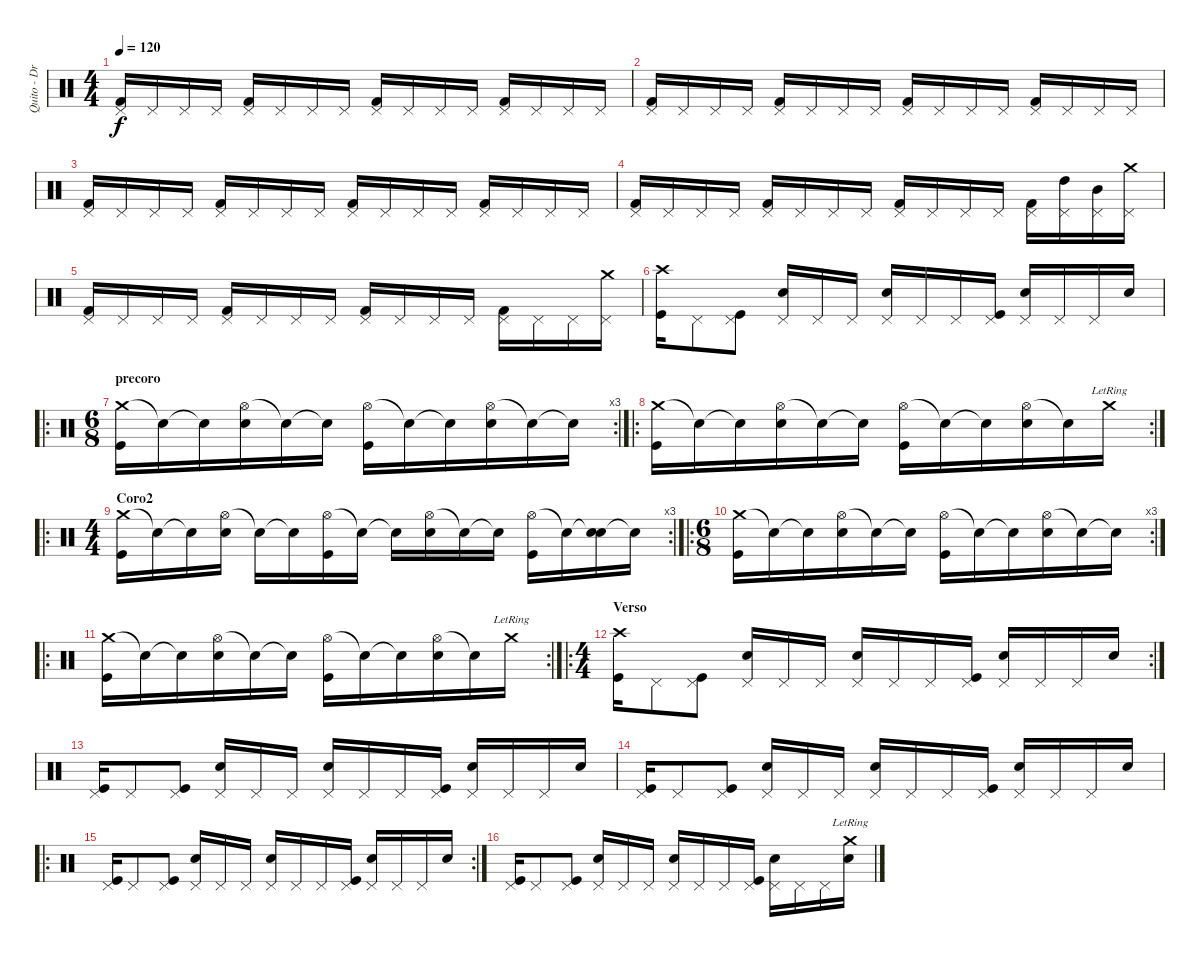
\track ("Quito - Drums" "Quito - Dr") {instrument percussion}
\staff {score}
\articulation defaults
\ts (4 4)
\tempo 120
\clef neutral
\ks c
("Pedal Hi-Hat (hit)" "Kick (hit) 2").16{dy f} "Pedal Hi-Hat (hit)".16 "Pedal Hi-Hat (hit)".16 "Pedal Hi-Hat (hit)".16 ("Pedal Hi-Hat (hit)" "Kick (hit) 2").16 "Pedal Hi-Hat (hit)".16 "Pedal Hi-Hat (hit)".16 "Pedal Hi-Hat (hit)".16 ("Pedal Hi-Hat (hit)" "Kick (hit) 2").16 "Pedal Hi-Hat (hit)".16 "Pedal Hi-Hat (hit)".16 "Pedal Hi-Hat (hit)".16 ("Pedal Hi-Hat (hit)" "Kick (hit) 2").16 "Pedal Hi-Hat (hit)".16 "Pedal Hi-Hat (hit)".16 "Pedal Hi-Hat (hit)".16 |
("Pedal Hi-Hat (hit)" "Kick (hit) 2").16 "Pedal Hi-Hat (hit)".16 "Pedal Hi-Hat (hit)".16 "Pedal Hi-Hat (hit)".16 ("Pedal Hi-Hat (hit)" "Kick (hit) 2").16 "Pedal Hi-Hat (hit)".16 "Pedal Hi-Hat (hit)".16 "Pedal Hi-Hat (hit)".16 ("Pedal Hi-Hat (hit)" "Kick (hit) 2").16 "Pedal Hi-Hat (hit)".16 "Pedal Hi-Hat (hit)".16 "Pedal Hi-Hat (hit)".16 ("Pedal Hi-Hat (hit)" "Kick (hit) 2").16 "Pedal Hi-Hat (hit)".16 "Pedal Hi-Hat (hit)".16 "Pedal Hi-Hat (hit)".16 |
("Pedal Hi-Hat (hit)" "Kick (hit) 2").16 "Pedal Hi-Hat (hit)".16 "Pedal Hi-Hat (hit)".16 "Pedal Hi-Hat (hit)".16 ("Pedal Hi-Hat (hit)" "Kick (hit) 2").16 "Pedal Hi-Hat (hit)".16 "Pedal Hi-Hat (hit)".16 "Pedal Hi-Hat (hit)".16 ("Pedal Hi-Hat (hit)" "Kick (hit) 2").16 "Pedal Hi-Hat (hit)".16 "Pedal Hi-Hat (hit)".16 "Pedal Hi-Hat (hit)".16 ("Pedal Hi-Hat (hit)" "Kick (hit) 2").16 "Pedal Hi-Hat (hit)".16 "Pedal Hi-Hat (hit)".16 "Pedal Hi-Hat (hit)".16 |
("Pedal Hi-Hat (hit)" "Kick (hit) 2").16 "Pedal Hi-Hat (hit)".16 "Pedal Hi-Hat (hit)".16 "Pedal Hi-Hat (hit)".16 ("Pedal Hi-Hat (hit)" "Kick (hit) 2").16 "Pedal Hi-Hat (hit)".16 "Pedal Hi-Hat (hit)".16 "Pedal Hi-Hat (hit)".16 ("Pedal Hi-Hat (hit)" "Kick (hit) 2").16 "Pedal Hi-Hat (hit)".16 "Pedal Hi-Hat (hit)".16 "Pedal Hi-Hat (hit)".16 ("Pedal Hi-Hat (hit)" "Kick (hit) 2").16 ("Pedal Hi-Hat (hit)" "High Tom (hit)").16 ("Pedal Hi-Hat (hit)" "Mid Tom (hit)").16 ("Pedal Hi-Hat (hit)" "Crash medium (hit)").16 |
("Pedal Hi-Hat (hit)" "Kick (hit) 2").16 "Pedal Hi-Hat (hit)".16 "Pedal Hi-Hat (hit)".16 "Pedal Hi-Hat (hit)".16 ("Pedal Hi-Hat (hit)" "Kick (hit) 2").16 "Pedal Hi-Hat (hit)".16 "Pedal Hi-Hat (hit)".16 "Pedal Hi-Hat (hit)".16 ("Pedal Hi-Hat (hit)" "Kick (hit) 2").16 "Pedal Hi-Hat (hit)".16 "Pedal Hi-Hat (hit)".16 "Pedal Hi-Hat (hit)".16 ("Pedal Hi-Hat (hit)" "Kick (hit) 2").16 "Pedal Hi-Hat (hit)".16 "Pedal Hi-Hat (hit)".16 ("Pedal Hi-Hat (hit)" "Crash medium (hit)").16 |
("Kick (hit)" "Crash high (hit)").16 "Pedal Hi-Hat (hit)".8 ("Kick (hit)" "Pedal Hi-Hat (hit)").8 ("Electric Snare (hit)" "Pedal Hi-Hat (hit)").16 "Pedal Hi-Hat (hit)".16 "Pedal Hi-Hat (hit)".16 ("Electric Snare (hit)" "Pedal Hi-Hat (hit)").16 "Pedal Hi-Hat (hit)".16 "Pedal Hi-Hat (hit)".16 ("Kick (hit)" "Pedal Hi-Hat (hit)").16 ("Electric Snare (hit)" "Pedal Hi-Hat (hit)").16 "Pedal Hi-Hat (hit)".16 "Pedal Hi-Hat (hit)".16 "Electric Snare (hit)".16 |
\ro
\rc 3
\ts (6 8)
\section ("" "precoro")
("Crash medium (hit)" "Kick (hit)").16 "Snare (hit)"{t}.16 "Snare (hit)"{t}.16 ("Hi-Hat (open)" "Snare (hit) 2").16 "Snare (hit)"{t}.16 "Snare (hit)"{t}.16 ("Hi-Hat (open)" "Kick (hit)").16 "Snare (hit)"{t}.16 "Snare (hit)"{t}.16 ("Hi-Hat (open)" "Snare (hit) 2").16 "Snare (hit)"{t}.16 "Snare (hit)"{t}.16 |
\ro
\rc 2
("Crash medium (hit)" "Kick (hit)").16 "Snare (hit)"{t}.16 "Snare (hit)"{t}.16 ("Hi-Hat (open)" "Snare (hit) 2").16 "Snare (hit)"{t}.16 "Snare (hit)"{t}.16 ("Hi-Hat (open)" "Kick (hit)").16 "Snare (hit)"{t}.16 "Snare (hit)"{t}.16 ("Hi-Hat (open)" "Snare (hit) 2").16 "Snare (hit)"{t}.16 "Crash medium (hit)"{lr}.16 |
\ro
\rc 3
\ts (4 4)
\section ("" "Coro2")
("Crash medium (hit)" "Kick (hit)").16 "Snare (hit)"{t}.16 "Snare (hit)"{t}.16 ("Hi-Hat (open)" "Snare (hit) 2").16 "Snare (hit)"{t}.16 "Snare (hit)"{t}.16 ("Hi-Hat (open)" "Kick (hit)").16 "Snare (hit)"{t}.16 "Snare (hit)"{t}.16 ("Hi-Hat (open)" "Snare (hit) 2").16 "Snare (hit)"{t}.16 "Snare (hit)"{t}.16 ("Hi-Hat (open)" "Kick (hit)").16 "Snare (hit)"{t}.16 ("Snare (hit)"{t} "Snare (hit) 2").16 "Snare (hit)"{t}.16 |
\ro
\rc 3
\ts (6 8)
("Crash medium (hit)" "Kick (hit)").16 "Snare (hit)"{t}.16 "Snare (hit)"{t}.16 ("Hi-Hat (open)" "Snare (hit) 2").16 "Snare (hit)"{t}.16 "Snare (hit)"{t}.16 ("Hi-Hat (open)" "Kick (hit)").16 "Snare (hit)"{t}.16 "Snare (hit)"{t}.16 ("Hi-Hat (open)" "Snare (hit) 2").16 "Snare (hit)"{t}.16 "Snare (hit)"{t}.16 |
\ro
\rc 2
("Crash medium (hit)" "Kick (hit)").16 "Snare (hit)"{t}.16 "Snare (hit)"{t}.16 ("Hi-Hat (open)" "Snare (hit) 2").16 "Snare (hit)"{t}.16 "Snare (hit)"{t}.16 ("Hi-Hat (open)" "Kick (hit)").16 "Snare (hit)"{t}.16 "Snare (hit)"{t}.16 ("Hi-Hat (open)" "Snare (hit) 2").16 "Snare (hit)"{t}.16 "Crash medium (hit)"{lr}.16 |
\ro
\rc 2
\ts (4 4)
\section ("" "Verso")
("Kick (hit)" "Crash high (hit)").16 "Pedal Hi-Hat (hit)".8 ("Kick (hit)" "Pedal Hi-Hat (hit)").8 ("Electric Snare (hit)" "Pedal Hi-Hat (hit)").16 "Pedal Hi-Hat (hit)".16 "Pedal Hi-Hat (hit)".16 ("Electric Snare (hit)" "Pedal Hi-Hat (hit)").16 "Pedal Hi-Hat (hit)".16 "Pedal Hi-Hat (hit)".16 ("Kick (hit)" "Pedal Hi-Hat (hit)").16 ("Electric Snare (hit)" "Pedal Hi-Hat (hit)").16 "Pedal Hi-Hat (hit)".16 "Pedal Hi-Hat (hit)".16 "Electric Snare (hit)".16 |
("Kick (hit)" "Pedal Hi-Hat (hit)").16 "Pedal Hi-Hat (hit)".8 ("Kick (hit)" "Pedal Hi-Hat (hit)").8 ("Electric Snare (hit)" "Pedal Hi-Hat (hit)").16 "Pedal Hi-Hat (hit)".16 "Pedal Hi-Hat (hit)".16 ("Electric Snare (hit)" "Pedal Hi-Hat (hit)").16 "Pedal Hi-Hat (hit)".16 "Pedal Hi-Hat (hit)".16 ("Kick (hit)" "Pedal Hi-Hat (hit)").16 ("Electric Snare (hit)" "Pedal Hi-Hat (hit)").16 "Pedal Hi-Hat (hit)".16 "Pedal Hi-Hat (hit)".16 "Electric Snare (hit)".16 |
("Kick (hit)" "Pedal Hi-Hat (hit)").16 "Pedal Hi-Hat (hit)".8 ("Kick (hit)" "Pedal Hi-Hat (hit)").8 ("Electric Snare (hit)" "Pedal Hi-Hat (hit)").16 "Pedal Hi-Hat (hit)".16 "Pedal Hi-Hat (hit)".16 ("Electric Snare (hit)" "Pedal Hi-Hat (hit)").16 "Pedal Hi-Hat (hit)".16 "Pedal Hi-Hat (hit)".16 ("Kick (hit)" "Pedal Hi-Hat (hit)").16 ("Electric Snare (hit)" "Pedal Hi-Hat (hit)").16 "Pedal Hi-Hat (hit)".16 "Pedal Hi-Hat (hit)".16 "Electric Snare (hit)".16 |
\ro
\rc 2
("Kick (hit)" "Pedal Hi-Hat (hit)").16 "Pedal Hi-Hat (hit)".8 ("Kick (hit)" "Pedal Hi-Hat (hit)").8 ("Electric Snare (hit)" "Pedal Hi-Hat (hit)").16 "Pedal Hi-Hat (hit)".16 "Pedal Hi-Hat (hit)".16 ("Electric Snare (hit)" "Pedal Hi-Hat (hit)").16 "Pedal Hi-Hat (hit)".16 "Pedal Hi-Hat (hit)".16 ("Kick (hit)" "Pedal Hi-Hat (hit)").16 ("Electric Snare (hit)" "Pedal Hi-Hat (hit)").16 "Pedal Hi-Hat (hit)".16 "Pedal Hi-Hat (hit)".16 "Electric Snare (hit)".16 |
("Kick (hit)" "Pedal Hi-Hat (hit)").16 "Pedal Hi-Hat (hit)".8 ("Kick (hit)" "Pedal Hi-Hat (hit)").8 ("Electric Snare (hit)" "Pedal Hi-Hat (hit)").16 "Pedal Hi-Hat (hit)".16 "Pedal Hi-Hat (hit)".16 ("Electric Snare (hit)" "Pedal Hi-Hat (hit)").16 "Pedal Hi-Hat (hit)".16 "Pedal Hi-Hat (hit)".16 ("Kick (hit)" "Pedal Hi-Hat (hit)").16 ("Electric Snare (hit)" "Pedal Hi-Hat (hit)").16 "Pedal Hi-Hat (hit)".16 "Pedal Hi-Hat (hit)".16 ("Electric Snare (hit)" "Crash medium (hit)"{lr}).16
